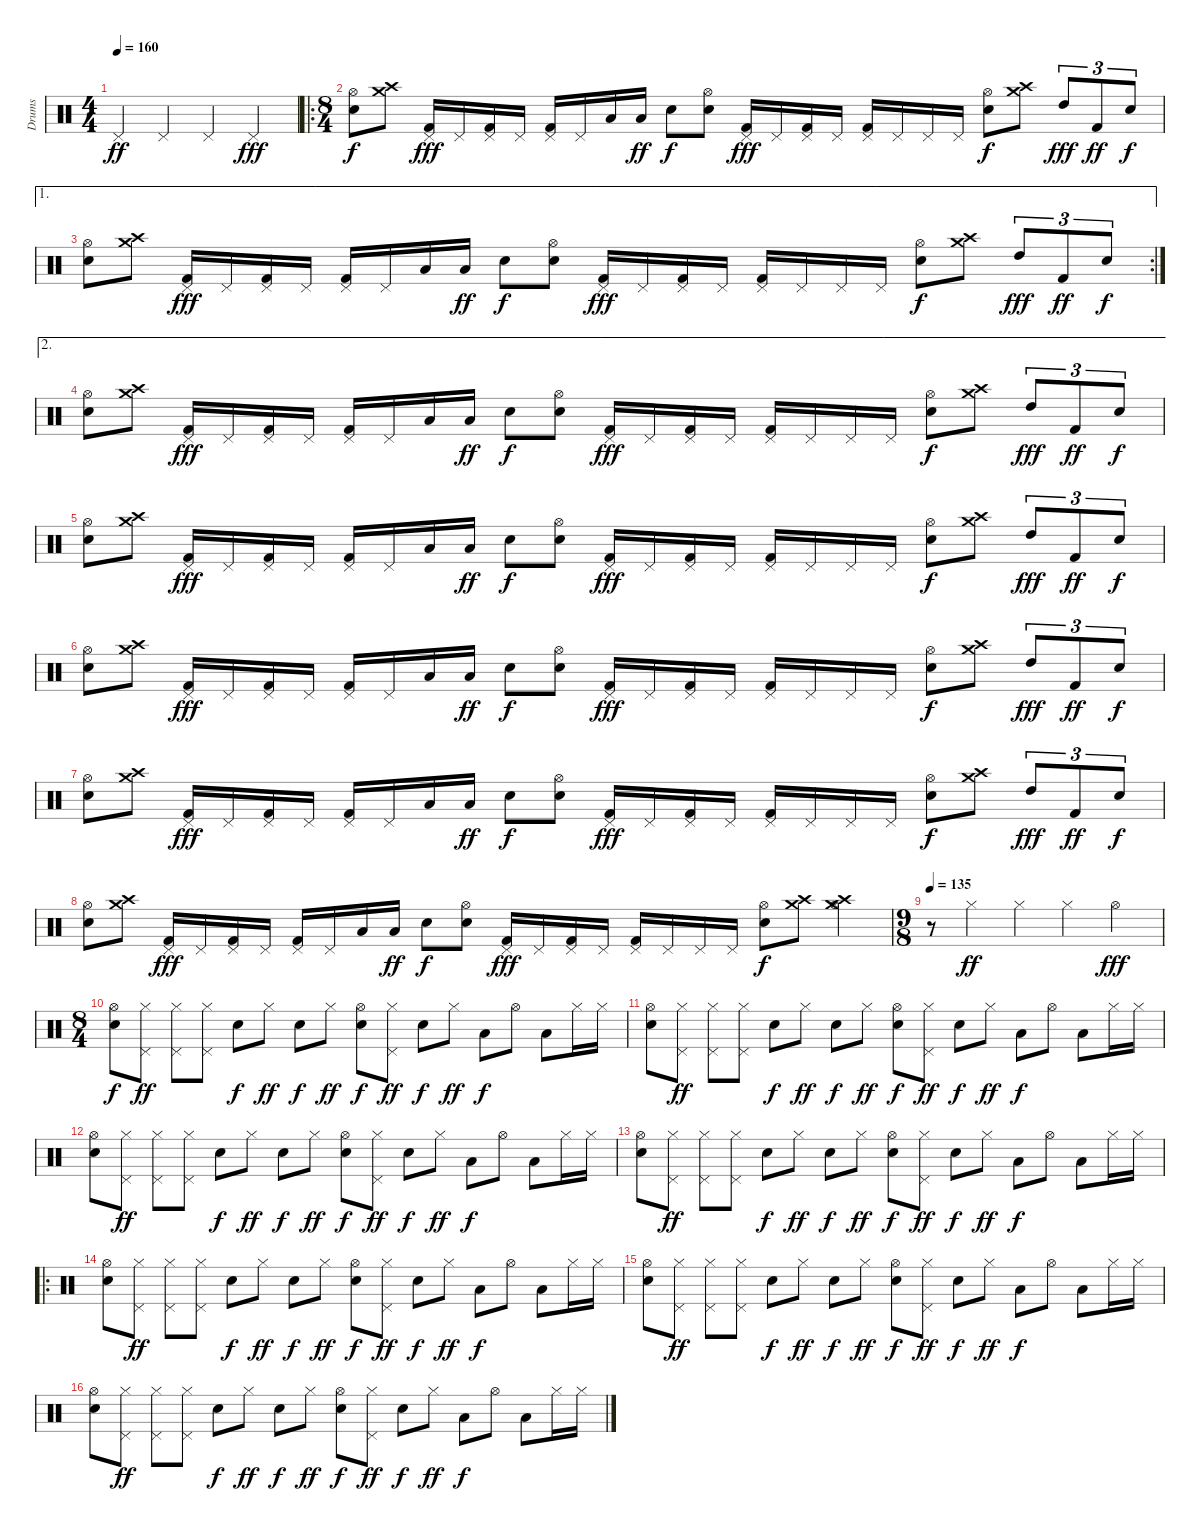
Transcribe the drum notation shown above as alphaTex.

\track ("Drums" "Drums") {instrument percussion}
\staff {score}
\articulation defaults
\ts (4 4)
\tempo 160
\clef neutral
\ks c "Pedal Hi-Hat (hit)".4{dy ff} "Pedal Hi-Hat (hit)".4 "Pedal Hi-Hat (hit)".4 "Pedal Hi-Hat (hit)".4{dy fff}
|
\ro
\ts (8 4)
("Hi-Hat (open)" "Electric Snare (hit)").8{dy f} ("Crash medium (hit)" "Crash high (hit)").8 ("Pedal Hi-Hat (hit)" "Kick (hit) 2").16{dy fff} "Pedal Hi-Hat (hit)".16 ("Pedal Hi-Hat (hit)" "Kick (hit) 2").16 "Pedal Hi-Hat (hit)".16 ("Kick (hit) 2" "Pedal Hi-Hat (hit)").16 "Pedal Hi-Hat (hit)".16 "Low Tom (hit)".16 "Low Tom (hit)".16{dy ff} "Electric Snare (hit)".8{dy f} ("Electric Snare (hit)" "Hi-Hat (open)").8 ("Pedal Hi-Hat (hit)" "Kick (hit) 2").16{dy fff} "Pedal Hi-Hat (hit)".16 ("Kick (hit) 2" "Pedal Hi-Hat (hit)").16 "Pedal Hi-Hat (hit)".16 ("Pedal Hi-Hat (hit)" "Kick (hit) 2").16 "Pedal Hi-Hat (hit)".16 "Pedal Hi-Hat (hit)".16 "Pedal Hi-Hat (hit)".16 ("Hi-Hat (open)" "Electric Snare (hit)").8{dy f} ("Crash medium (hit)" "Crash high (hit)").8 "High Tom (hit)".8{tu (3 2) dy fff} "Kick (hit) 2".8{tu (3 2) dy ff} "Electric Snare (hit)".8{tu (3 2) dy f} |
\ae 1
\rc 2
("Hi-Hat (open)" "Electric Snare (hit)").8 ("Crash medium (hit)" "Crash high (hit)").8 ("Pedal Hi-Hat (hit)" "Kick (hit) 2").16{dy fff} "Pedal Hi-Hat (hit)".16 ("Pedal Hi-Hat (hit)" "Kick (hit) 2").16 "Pedal Hi-Hat (hit)".16 ("Kick (hit) 2" "Pedal Hi-Hat (hit)").16 "Pedal Hi-Hat (hit)".16 "Low Tom (hit)".16 "Low Tom (hit)".16{dy ff} "Electric Snare (hit)".8{dy f} ("Electric Snare (hit)" "Hi-Hat (open)").8 ("Pedal Hi-Hat (hit)" "Kick (hit) 2").16{dy fff} "Pedal Hi-Hat (hit)".16 ("Kick (hit) 2" "Pedal Hi-Hat (hit)").16 "Pedal Hi-Hat (hit)".16 ("Pedal Hi-Hat (hit)" "Kick (hit) 2").16 "Pedal Hi-Hat (hit)".16 "Pedal Hi-Hat (hit)".16 "Pedal Hi-Hat (hit)".16 ("Hi-Hat (open)" "Electric Snare (hit)").8{dy f} ("Crash medium (hit)" "Crash high (hit)").8 "High Tom (hit)".8{tu (3 2) dy fff} "Kick (hit) 2".8{tu (3 2) dy ff} "Electric Snare (hit)".8{tu (3 2) dy f} |
\ae 2
("Hi-Hat (open)" "Electric Snare (hit)").8 ("Crash medium (hit)" "Crash high (hit)").8 ("Pedal Hi-Hat (hit)" "Kick (hit) 2").16{dy fff} "Pedal Hi-Hat (hit)".16 ("Pedal Hi-Hat (hit)" "Kick (hit) 2").16 "Pedal Hi-Hat (hit)".16 ("Kick (hit) 2" "Pedal Hi-Hat (hit)").16 "Pedal Hi-Hat (hit)".16 "Low Tom (hit)".16 "Low Tom (hit)".16{dy ff} "Electric Snare (hit)".8{dy f} ("Electric Snare (hit)" "Hi-Hat (open)").8 ("Pedal Hi-Hat (hit)" "Kick (hit) 2").16{dy fff} "Pedal Hi-Hat (hit)".16 ("Kick (hit) 2" "Pedal Hi-Hat (hit)").16 "Pedal Hi-Hat (hit)".16 ("Pedal Hi-Hat (hit)" "Kick (hit) 2").16 "Pedal Hi-Hat (hit)".16 "Pedal Hi-Hat (hit)".16 "Pedal Hi-Hat (hit)".16 ("Hi-Hat (open)" "Electric Snare (hit)").8{dy f} ("Crash medium (hit)" "Crash high (hit)").8 "High Tom (hit)".8{tu (3 2) dy fff} "Kick (hit) 2".8{tu (3 2) dy ff} "Electric Snare (hit)".8{tu (3 2) dy f} |
("Hi-Hat (open)" "Electric Snare (hit)").8 ("Crash medium (hit)" "Crash high (hit)").8 ("Pedal Hi-Hat (hit)" "Kick (hit) 2").16{dy fff} "Pedal Hi-Hat (hit)".16 ("Pedal Hi-Hat (hit)" "Kick (hit) 2").16 "Pedal Hi-Hat (hit)".16 ("Kick (hit) 2" "Pedal Hi-Hat (hit)").16 "Pedal Hi-Hat (hit)".16 "Low Tom (hit)".16 "Low Tom (hit)".16{dy ff} "Electric Snare (hit)".8{dy f} ("Electric Snare (hit)" "Hi-Hat (open)").8 ("Pedal Hi-Hat (hit)" "Kick (hit) 2").16{dy fff} "Pedal Hi-Hat (hit)".16 ("Kick (hit) 2" "Pedal Hi-Hat (hit)").16 "Pedal Hi-Hat (hit)".16 ("Pedal Hi-Hat (hit)" "Kick (hit) 2").16 "Pedal Hi-Hat (hit)".16 "Pedal Hi-Hat (hit)".16 "Pedal Hi-Hat (hit)".16 ("Hi-Hat (open)" "Electric Snare (hit)").8{dy f} ("Crash medium (hit)" "Crash high (hit)").8 "High Tom (hit)".8{tu (3 2) dy fff} "Kick (hit) 2".8{tu (3 2) dy ff} "Electric Snare (hit)".8{tu (3 2) dy f} |
("Hi-Hat (open)" "Electric Snare (hit)").8 ("Crash medium (hit)" "Crash high (hit)").8 ("Pedal Hi-Hat (hit)" "Kick (hit) 2").16{dy fff} "Pedal Hi-Hat (hit)".16 ("Pedal Hi-Hat (hit)" "Kick (hit) 2").16 "Pedal Hi-Hat (hit)".16 ("Kick (hit) 2" "Pedal Hi-Hat (hit)").16 "Pedal Hi-Hat (hit)".16 "Low Tom (hit)".16 "Low Tom (hit)".16{dy ff} "Electric Snare (hit)".8{dy f} ("Electric Snare (hit)" "Hi-Hat (open)").8 ("Pedal Hi-Hat (hit)" "Kick (hit) 2").16{dy fff} "Pedal Hi-Hat (hit)".16 ("Kick (hit) 2" "Pedal Hi-Hat (hit)").16 "Pedal Hi-Hat (hit)".16 ("Pedal Hi-Hat (hit)" "Kick (hit) 2").16 "Pedal Hi-Hat (hit)".16 "Pedal Hi-Hat (hit)".16 "Pedal Hi-Hat (hit)".16 ("Hi-Hat (open)" "Electric Snare (hit)").8{dy f} ("Crash medium (hit)" "Crash high (hit)").8 "High Tom (hit)".8{tu (3 2) dy fff} "Kick (hit) 2".8{tu (3 2) dy ff} "Electric Snare (hit)".8{tu (3 2) dy f} |
("Hi-Hat (open)" "Electric Snare (hit)").8 ("Crash medium (hit)" "Crash high (hit)").8 ("Pedal Hi-Hat (hit)" "Kick (hit) 2").16{dy fff} "Pedal Hi-Hat (hit)".16 ("Pedal Hi-Hat (hit)" "Kick (hit) 2").16 "Pedal Hi-Hat (hit)".16 ("Kick (hit) 2" "Pedal Hi-Hat (hit)").16 "Pedal Hi-Hat (hit)".16 "Low Tom (hit)".16 "Low Tom (hit)".16{dy ff} "Electric Snare (hit)".8{dy f} ("Electric Snare (hit)" "Hi-Hat (open)").8 ("Pedal Hi-Hat (hit)" "Kick (hit) 2").16{dy fff} "Pedal Hi-Hat (hit)".16 ("Kick (hit) 2" "Pedal Hi-Hat (hit)").16 "Pedal Hi-Hat (hit)".16 ("Pedal Hi-Hat (hit)" "Kick (hit) 2").16 "Pedal Hi-Hat (hit)".16 "Pedal Hi-Hat (hit)".16 "Pedal Hi-Hat (hit)".16 ("Hi-Hat (open)" "Electric Snare (hit)").8{dy f} ("Crash medium (hit)" "Crash high (hit)").8 "High Tom (hit)".8{tu (3 2) dy fff} "Kick (hit) 2".8{tu (3 2) dy ff} "Electric Snare (hit)".8{tu (3 2) dy f} |
("Hi-Hat (open)" "Electric Snare (hit)").8 ("Crash medium (hit)" "Crash high (hit)").8 ("Pedal Hi-Hat (hit)" "Kick (hit) 2").16{dy fff} "Pedal Hi-Hat (hit)".16 ("Pedal Hi-Hat (hit)" "Kick (hit) 2").16 "Pedal Hi-Hat (hit)".16 ("Kick (hit) 2" "Pedal Hi-Hat (hit)").16 "Pedal Hi-Hat (hit)".16 "Low Tom (hit)".16 "Low Tom (hit)".16{dy ff} "Electric Snare (hit)".8{dy f} ("Electric Snare (hit)" "Hi-Hat (open)").8 ("Pedal Hi-Hat (hit)" "Kick (hit) 2").16{dy fff} "Pedal Hi-Hat (hit)".16 ("Kick (hit) 2" "Pedal Hi-Hat (hit)").16 "Pedal Hi-Hat (hit)".16 ("Pedal Hi-Hat (hit)" "Kick (hit) 2").16 "Pedal Hi-Hat (hit)".16 "Pedal Hi-Hat (hit)".16 "Pedal Hi-Hat (hit)".16 ("Hi-Hat (open)" "Electric Snare (hit)").8{dy f} ("Crash medium (hit)" "Crash high (hit)").8 ("Crash medium (hit)" "Crash high (hit)" "Hi-Hat (open)").4 |
\ts (9 8)
\tempo 135
r.8 "Hi-Hat (closed)".4{dy ff} "Hi-Hat (closed)".4 "Hi-Hat (closed)".4 "Hi-Hat (open)".4{dy fff} |
\ts (8 4)
("Hi-Hat (open)" "Electric Snare (hit)").8{dy f} ("Pedal Hi-Hat (hit)" "Hi-Hat (closed)").8{dy ff} ("Hi-Hat (closed)" "Pedal Hi-Hat (hit)").8 ("Hi-Hat (closed)" "Pedal Hi-Hat (hit)").8 "Electric Snare (hit)".8{dy f} "Hi-Hat (closed)".8{dy ff} "Electric Snare (hit)".8{dy f} "Hi-Hat (closed)".8{dy ff} ("Hi-Hat (open)" "Electric Snare (hit)").8{dy f} ("Pedal Hi-Hat (hit)" "Hi-Hat (closed)").8{dy ff} "Electric Snare (hit)".8{dy f} "Hi-Hat (closed)".8{dy ff} "Low Tom (hit)".8{dy f} "Hi-Hat (open)".8 "Low Tom (hit)".8 "Hi-Hat (closed)".16 "Hi-Hat (closed)".16 |
("Hi-Hat (open)" "Electric Snare (hit)").8 ("Pedal Hi-Hat (hit)" "Hi-Hat (closed)").8{dy ff} ("Hi-Hat (closed)" "Pedal Hi-Hat (hit)").8 ("Hi-Hat (closed)" "Pedal Hi-Hat (hit)").8 "Electric Snare (hit)".8{dy f} "Hi-Hat (closed)".8{dy ff} "Electric Snare (hit)".8{dy f} "Hi-Hat (closed)".8{dy ff} ("Hi-Hat (open)" "Electric Snare (hit)").8{dy f} ("Pedal Hi-Hat (hit)" "Hi-Hat (closed)").8{dy ff} "Electric Snare (hit)".8{dy f} "Hi-Hat (closed)".8{dy ff} "Low Tom (hit)".8{dy f} "Hi-Hat (open)".8 "Low Tom (hit)".8 "Hi-Hat (closed)".16 "Hi-Hat (closed)".16 |
("Hi-Hat (open)" "Electric Snare (hit)").8 ("Pedal Hi-Hat (hit)" "Hi-Hat (closed)").8{dy ff} ("Hi-Hat (closed)" "Pedal Hi-Hat (hit)").8 ("Hi-Hat (closed)" "Pedal Hi-Hat (hit)").8 "Electric Snare (hit)".8{dy f} "Hi-Hat (closed)".8{dy ff} "Electric Snare (hit)".8{dy f} "Hi-Hat (closed)".8{dy ff} ("Hi-Hat (open)" "Electric Snare (hit)").8{dy f} ("Pedal Hi-Hat (hit)" "Hi-Hat (closed)").8{dy ff} "Electric Snare (hit)".8{dy f} "Hi-Hat (closed)".8{dy ff} "Low Tom (hit)".8{dy f} "Hi-Hat (open)".8 "Low Tom (hit)".8 "Hi-Hat (closed)".16 "Hi-Hat (closed)".16 |
("Hi-Hat (open)" "Electric Snare (hit)").8 ("Pedal Hi-Hat (hit)" "Hi-Hat (closed)").8{dy ff} ("Hi-Hat (closed)" "Pedal Hi-Hat (hit)").8 ("Hi-Hat (closed)" "Pedal Hi-Hat (hit)").8 "Electric Snare (hit)".8{dy f} "Hi-Hat (closed)".8{dy ff} "Electric Snare (hit)".8{dy f} "Hi-Hat (closed)".8{dy ff} ("Hi-Hat (open)" "Electric Snare (hit)").8{dy f} ("Pedal Hi-Hat (hit)" "Hi-Hat (closed)").8{dy ff} "Electric Snare (hit)".8{dy f} "Hi-Hat (closed)".8{dy ff} "Low Tom (hit)".8{dy f} "Hi-Hat (open)".8 "Low Tom (hit)".8 "Hi-Hat (closed)".16 "Hi-Hat (closed)".16 |
\ro
("Hi-Hat (open)" "Electric Snare (hit)").8 ("Pedal Hi-Hat (hit)" "Hi-Hat (closed)").8{dy ff} ("Hi-Hat (closed)" "Pedal Hi-Hat (hit)").8 ("Hi-Hat (closed)" "Pedal Hi-Hat (hit)").8 "Electric Snare (hit)".8{dy f} "Hi-Hat (closed)".8{dy ff} "Electric Snare (hit)".8{dy f} "Hi-Hat (closed)".8{dy ff} ("Hi-Hat (open)" "Electric Snare (hit)").8{dy f} ("Pedal Hi-Hat (hit)" "Hi-Hat (closed)").8{dy ff} "Electric Snare (hit)".8{dy f} "Hi-Hat (closed)".8{dy ff} "Low Tom (hit)".8{dy f} "Hi-Hat (open)".8 "Low Tom (hit)".8 "Hi-Hat (closed)".16 "Hi-Hat (closed)".16 |
("Hi-Hat (open)" "Electric Snare (hit)").8 ("Pedal Hi-Hat (hit)" "Hi-Hat (closed)").8{dy ff} ("Hi-Hat (closed)" "Pedal Hi-Hat (hit)").8 ("Hi-Hat (closed)" "Pedal Hi-Hat (hit)").8 "Electric Snare (hit)".8{dy f} "Hi-Hat (closed)".8{dy ff} "Electric Snare (hit)".8{dy f} "Hi-Hat (closed)".8{dy ff} ("Hi-Hat (open)" "Electric Snare (hit)").8{dy f} ("Pedal Hi-Hat (hit)" "Hi-Hat (closed)").8{dy ff} "Electric Snare (hit)".8{dy f} "Hi-Hat (closed)".8{dy ff} "Low Tom (hit)".8{dy f} "Hi-Hat (open)".8 "Low Tom (hit)".8 "Hi-Hat (closed)".16 "Hi-Hat (closed)".16 |
("Hi-Hat (open)" "Electric Snare (hit)").8 ("Pedal Hi-Hat (hit)" "Hi-Hat (closed)").8{dy ff} ("Hi-Hat (closed)" "Pedal Hi-Hat (hit)").8 ("Hi-Hat (closed)" "Pedal Hi-Hat (hit)").8 "Electric Snare (hit)".8{dy f} "Hi-Hat (closed)".8{dy ff} "Electric Snare (hit)".8{dy f} "Hi-Hat (closed)".8{dy ff} ("Hi-Hat (open)" "Electric Snare (hit)").8{dy f} ("Pedal Hi-Hat (hit)" "Hi-Hat (closed)").8{dy ff} "Electric Snare (hit)".8{dy f} "Hi-Hat (closed)".8{dy ff} "Low Tom (hit)".8{dy f} "Hi-Hat (open)".8 "Low Tom (hit)".8 "Hi-Hat (closed)".16 "Hi-Hat (closed)".16
